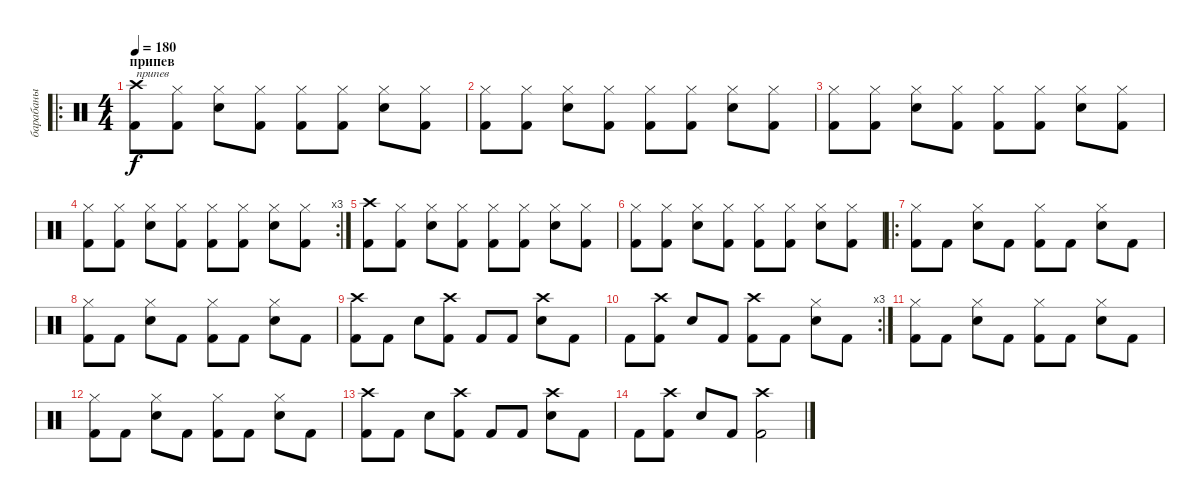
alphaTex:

\track ("барабаны" "барабаны") {instrument percussion}
\staff {score}
\articulation defaults
\ro
\ts (4 4)
\section ("" "припев")
\tempo 180
\clef neutral
\ks c
("Kick (hit) 2" "Crash high (hit)").8{txt "припев" dy f} ("Kick (hit) 2" "Hi-Hat (closed)").8 ("Snare (hit) 2" "Hi-Hat (closed)").8 ("Kick (hit) 2" "Hi-Hat (closed)").8 ("Kick (hit) 2" "Hi-Hat (closed)").8 ("Kick (hit) 2" "Hi-Hat (closed)").8 ("Snare (hit) 2" "Hi-Hat (closed)").8 ("Kick (hit) 2" "Hi-Hat (closed)").8 |
("Kick (hit) 2" "Hi-Hat (closed)").8 ("Kick (hit) 2" "Hi-Hat (closed)").8 ("Snare (hit) 2" "Hi-Hat (closed)").8 ("Kick (hit) 2" "Hi-Hat (closed)").8 ("Kick (hit) 2" "Hi-Hat (closed)").8 ("Kick (hit) 2" "Hi-Hat (closed)").8 ("Snare (hit) 2" "Hi-Hat (closed)").8 ("Kick (hit) 2" "Hi-Hat (closed)").8 |
("Kick (hit) 2" "Hi-Hat (closed)").8 ("Kick (hit) 2" "Hi-Hat (closed)").8 ("Snare (hit) 2" "Hi-Hat (closed)").8 ("Kick (hit) 2" "Hi-Hat (closed)").8 ("Kick (hit) 2" "Hi-Hat (closed)").8 ("Kick (hit) 2" "Hi-Hat (closed)").8 ("Snare (hit) 2" "Hi-Hat (closed)").8 ("Kick (hit) 2" "Hi-Hat (closed)").8 |
\rc 3
("Kick (hit) 2" "Hi-Hat (closed)").8 ("Kick (hit) 2" "Hi-Hat (closed)").8 ("Snare (hit) 2" "Hi-Hat (closed)").8 ("Kick (hit) 2" "Hi-Hat (closed)").8 ("Kick (hit) 2" "Hi-Hat (closed)").8 ("Kick (hit) 2" "Hi-Hat (closed)").8 ("Snare (hit) 2" "Hi-Hat (closed)").8 ("Kick (hit) 2" "Hi-Hat (closed)").8 |
("Kick (hit) 2" "Crash high (hit)").8 ("Kick (hit) 2" "Hi-Hat (closed)").8 ("Snare (hit) 2" "Hi-Hat (closed)").8 ("Kick (hit) 2" "Hi-Hat (closed)").8 ("Kick (hit) 2" "Hi-Hat (closed)").8 ("Kick (hit) 2" "Hi-Hat (closed)").8 ("Snare (hit) 2" "Hi-Hat (closed)").8 ("Kick (hit) 2" "Hi-Hat (closed)").8 |
("Kick (hit) 2" "Hi-Hat (closed)").8 ("Kick (hit) 2" "Hi-Hat (closed)").8 ("Snare (hit) 2" "Hi-Hat (closed)").8 ("Kick (hit) 2" "Hi-Hat (closed)").8 ("Kick (hit) 2" "Hi-Hat (closed)").8 ("Kick (hit) 2" "Hi-Hat (closed)").8 ("Snare (hit) 2" "Hi-Hat (closed)").8 ("Kick (hit) 2" "Hi-Hat (closed)").8 |
\ro
("Kick (hit) 2" "Hi-Hat (closed)").8 "Kick (hit) 2".8 ("Snare (hit) 2" "Hi-Hat (closed)").8 "Kick (hit) 2".8 ("Kick (hit) 2" "Hi-Hat (closed)").8 "Kick (hit) 2".8 ("Snare (hit) 2" "Hi-Hat (closed)").8 "Kick (hit) 2".8 |
("Kick (hit) 2" "Hi-Hat (closed)").8 "Kick (hit) 2".8 ("Snare (hit) 2" "Hi-Hat (closed)").8 "Kick (hit) 2".8 ("Kick (hit) 2" "Hi-Hat (closed)").8 "Kick (hit) 2".8 ("Snare (hit) 2" "Hi-Hat (closed)").8 "Kick (hit) 2".8 |
("Kick (hit) 2" "Crash high (hit)").8 "Kick (hit) 2".8 "Snare (hit) 2".8 ("Kick (hit) 2" "Crash high (hit)").8 "Kick (hit) 2".8 "Kick (hit) 2".8 ("Snare (hit) 2" "Crash high (hit)").8 "Kick (hit) 2".8 |
\rc 3 "Kick (hit) 2".8
("Kick (hit) 2" "Crash high (hit)").8 "Snare (hit) 2".8 "Kick (hit) 2".8 ("Kick (hit) 2" "Crash high (hit)").8 "Kick (hit) 2".8 ("Snare (hit) 2" "Hi-Hat (closed)").8 "Kick (hit) 2".8 |
("Kick (hit) 2" "Hi-Hat (closed)").8 "Kick (hit) 2".8 ("Snare (hit) 2" "Hi-Hat (closed)").8 "Kick (hit) 2".8 ("Kick (hit) 2" "Hi-Hat (closed)").8 "Kick (hit) 2".8 ("Snare (hit) 2" "Hi-Hat (closed)").8 "Kick (hit) 2".8 |
("Kick (hit) 2" "Hi-Hat (closed)").8 "Kick (hit) 2".8 ("Snare (hit) 2" "Hi-Hat (closed)").8 "Kick (hit) 2".8 ("Kick (hit) 2" "Hi-Hat (closed)").8 "Kick (hit) 2".8 ("Snare (hit) 2" "Hi-Hat (closed)").8 "Kick (hit) 2".8 |
("Kick (hit) 2" "Crash high (hit)").8 "Kick (hit) 2".8 "Snare (hit) 2".8 ("Kick (hit) 2" "Crash high (hit)").8 "Kick (hit) 2".8 "Kick (hit) 2".8 ("Snare (hit) 2" "Crash high (hit)").8 "Kick (hit) 2".8 |
"Kick (hit) 2".8 ("Kick (hit) 2" "Crash high (hit)").8 "Snare (hit) 2".8 "Kick (hit) 2".8 ("Kick (hit) 2" "Crash high (hit)").2
